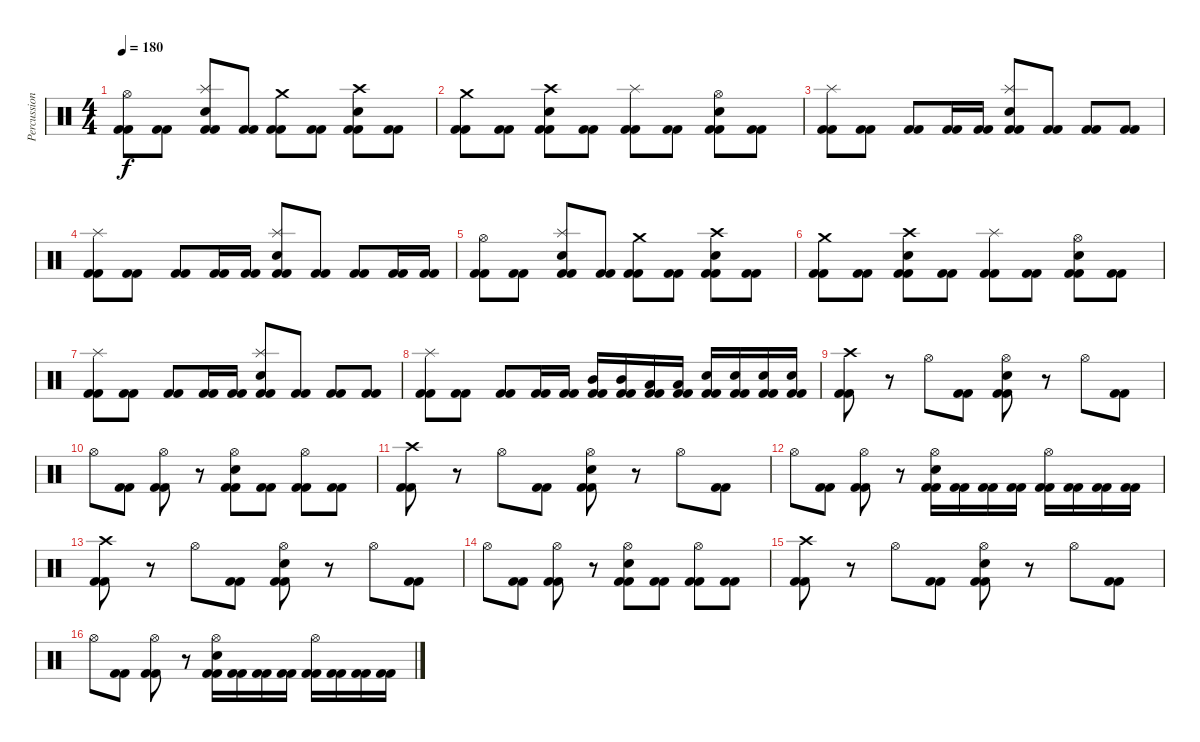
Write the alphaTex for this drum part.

\track ("Percussion" "Percussion") {instrument percussion}
\staff {score}
\articulation defaults
\ts (4 4)
\tempo 180
\clef neutral
\ks c
("Hi-Hat (open)" "Kick (hit) 2" "Kick (hit) 2").8{dy f} ("Kick (hit) 2" "Kick (hit) 2").8 ("Splash (hit)" "Electric Snare (hit)" "Kick (hit) 2" "Kick (hit) 2").8 ("Kick (hit) 2" "Kick (hit) 2").8 ("Crash medium (hit)" "Kick (hit) 2" "Kick (hit) 2").8 ("Kick (hit) 2" "Kick (hit) 2").8 ("Crash high (hit)" "Electric Snare (hit)" "Kick (hit) 2" "Kick (hit) 2").8 ("Kick (hit) 2" "Kick (hit) 2").8 |
("Crash medium (hit)" "Kick (hit) 2" "Kick (hit) 2").8 ("Kick (hit) 2" "Kick (hit) 2").8 ("Crash high (hit)" "Electric Snare (hit)" "Kick (hit) 2" "Kick (hit) 2").8 ("Kick (hit) 2" "Kick (hit) 2").8 ("Splash (hit)" "Kick (hit) 2" "Kick (hit) 2").8 ("Kick (hit) 2" "Kick (hit) 2").8 ("Hi-Hat (open)" "Electric Snare (hit)" "Kick (hit) 2" "Kick (hit) 2").8 ("Kick (hit) 2" "Kick (hit) 2").8 |
("Splash (hit)" "Kick (hit) 2" "Kick (hit) 2").8 ("Kick (hit) 2" "Kick (hit) 2").8 ("Kick (hit) 2" "Kick (hit) 2").8 ("Kick (hit) 2" "Kick (hit) 2").16 ("Kick (hit) 2" "Kick (hit) 2").16 ("Splash (hit)" "Electric Snare (hit)" "Kick (hit) 2" "Kick (hit) 2").8 ("Kick (hit) 2" "Kick (hit) 2").8 ("Kick (hit) 2" "Kick (hit) 2").8 ("Kick (hit) 2" "Kick (hit) 2").8 |
("Splash (hit)" "Kick (hit) 2" "Kick (hit) 2").8 ("Kick (hit) 2" "Kick (hit) 2").8 ("Kick (hit) 2" "Kick (hit) 2").8 ("Kick (hit) 2" "Kick (hit) 2").16 ("Kick (hit) 2" "Kick (hit) 2").16 ("Splash (hit)" "Electric Snare (hit)" "Kick (hit) 2" "Kick (hit) 2").8 ("Kick (hit) 2" "Kick (hit) 2").8 ("Kick (hit) 2" "Kick (hit) 2").8 ("Kick (hit) 2" "Kick (hit) 2").16 ("Kick (hit) 2" "Kick (hit) 2").16 |
("Hi-Hat (open)" "Kick (hit) 2" "Kick (hit) 2").8 ("Kick (hit) 2" "Kick (hit) 2").8 ("Splash (hit)" "Electric Snare (hit)" "Kick (hit) 2" "Kick (hit) 2").8 ("Kick (hit) 2" "Kick (hit) 2").8 ("Crash medium (hit)" "Kick (hit) 2" "Kick (hit) 2").8 ("Kick (hit) 2" "Kick (hit) 2").8 ("Crash high (hit)" "Electric Snare (hit)" "Kick (hit) 2" "Kick (hit) 2").8 ("Kick (hit) 2" "Kick (hit) 2").8 |
("Crash medium (hit)" "Kick (hit) 2" "Kick (hit) 2").8 ("Kick (hit) 2" "Kick (hit) 2").8 ("Crash high (hit)" "Electric Snare (hit)" "Kick (hit) 2" "Kick (hit) 2").8 ("Kick (hit) 2" "Kick (hit) 2").8 ("Splash (hit)" "Kick (hit) 2" "Kick (hit) 2").8 ("Kick (hit) 2" "Kick (hit) 2").8 ("Hi-Hat (open)" "Electric Snare (hit)" "Kick (hit) 2" "Kick (hit) 2").8 ("Kick (hit) 2" "Kick (hit) 2").8 |
("Splash (hit)" "Kick (hit) 2" "Kick (hit) 2").8 ("Kick (hit) 2" "Kick (hit) 2").8 ("Kick (hit) 2" "Kick (hit) 2").8 ("Kick (hit) 2" "Kick (hit) 2").16 ("Kick (hit) 2" "Kick (hit) 2").16 ("Splash (hit)" "Electric Snare (hit)" "Kick (hit) 2" "Kick (hit) 2").8 ("Kick (hit) 2" "Kick (hit) 2").8 ("Kick (hit) 2" "Kick (hit) 2").8 ("Kick (hit) 2" "Kick (hit) 2").8 |
("Splash (hit)" "Kick (hit) 2" "Kick (hit) 2").8 ("Kick (hit) 2" "Kick (hit) 2").8 ("Kick (hit) 2" "Kick (hit) 2").8 ("Kick (hit) 2" "Kick (hit) 2").16 ("Kick (hit) 2" "Kick (hit) 2").16 ("Mid Tom (hit)" "Kick (hit) 2" "Kick (hit) 2").16 ("Mid Tom (hit)" "Kick (hit) 2" "Kick (hit) 2").16 ("Low Tom (hit)" "Kick (hit) 2" "Kick (hit) 2").16 ("Low Tom (hit)" "Kick (hit) 2" "Kick (hit) 2").16 ("Electric Snare (hit)" "Kick (hit) 2" "Kick (hit) 2").16 ("Electric Snare (hit)" "Kick (hit) 2" "Kick (hit) 2").16 ("Electric Snare (hit)" "Kick (hit) 2" "Kick (hit) 2").16 ("Electric Snare (hit)" "Kick (hit) 2" "Kick (hit) 2").16 |
("Crash high (hit)" "Kick (hit) 2" "Kick (hit) 2").8 r.8 "Hi-Hat (open)".8 ("Kick (hit) 2" "Kick (hit) 2").8 ("Hi-Hat (open)" "Electric Snare (hit)" "Kick (hit) 2" "Kick (hit) 2").8 r.8 "Hi-Hat (open)".8 ("Kick (hit) 2" "Kick (hit) 2").8 |
"Hi-Hat (open)".8 ("Kick (hit) 2" "Kick (hit) 2").8 ("Hi-Hat (open)" "Kick (hit) 2" "Kick (hit) 2").8 r.8 ("Hi-Hat (open)" "Electric Snare (hit)" "Kick (hit) 2" "Kick (hit) 2").8 ("Kick (hit) 2" "Kick (hit) 2").8 ("Hi-Hat (open)" "Kick (hit) 2" "Kick (hit) 2").8 ("Kick (hit) 2" "Kick (hit) 2").8 |
("Crash high (hit)" "Kick (hit) 2" "Kick (hit) 2").8 r.8 "Hi-Hat (open)".8 ("Kick (hit) 2" "Kick (hit) 2").8 ("Hi-Hat (open)" "Electric Snare (hit)" "Kick (hit) 2" "Kick (hit) 2").8 r.8 "Hi-Hat (open)".8 ("Kick (hit) 2" "Kick (hit) 2").8 |
"Hi-Hat (open)".8 ("Kick (hit) 2" "Kick (hit) 2").8 ("Hi-Hat (open)" "Kick (hit) 2" "Kick (hit) 2").8 r.8 ("Hi-Hat (open)" "Electric Snare (hit)" "Kick (hit) 2" "Kick (hit) 2").16 ("Kick (hit) 2" "Kick (hit) 2").16 ("Kick (hit) 2" "Kick (hit) 2").16 ("Kick (hit) 2" "Kick (hit) 2").16 ("Hi-Hat (open)" "Kick (hit) 2" "Kick (hit) 2").16 ("Kick (hit) 2" "Kick (hit) 2").16 ("Kick (hit) 2" "Kick (hit) 2").16 ("Kick (hit) 2" "Kick (hit) 2").16 |
("Crash high (hit)" "Kick (hit) 2" "Kick (hit) 2").8 r.8 "Hi-Hat (open)".8 ("Kick (hit) 2" "Kick (hit) 2").8 ("Hi-Hat (open)" "Electric Snare (hit)" "Kick (hit) 2" "Kick (hit) 2").8 r.8 "Hi-Hat (open)".8 ("Kick (hit) 2" "Kick (hit) 2").8 |
"Hi-Hat (open)".8 ("Kick (hit) 2" "Kick (hit) 2").8 ("Hi-Hat (open)" "Kick (hit) 2" "Kick (hit) 2").8 r.8 ("Hi-Hat (open)" "Electric Snare (hit)" "Kick (hit) 2" "Kick (hit) 2").8 ("Kick (hit) 2" "Kick (hit) 2").8 ("Hi-Hat (open)" "Kick (hit) 2" "Kick (hit) 2").8 ("Kick (hit) 2" "Kick (hit) 2").8 |
("Crash high (hit)" "Kick (hit) 2" "Kick (hit) 2").8 r.8 "Hi-Hat (open)".8 ("Kick (hit) 2" "Kick (hit) 2").8 ("Hi-Hat (open)" "Electric Snare (hit)" "Kick (hit) 2" "Kick (hit) 2").8 r.8 "Hi-Hat (open)".8 ("Kick (hit) 2" "Kick (hit) 2").8 |
"Hi-Hat (open)".8 ("Kick (hit) 2" "Kick (hit) 2").8 ("Hi-Hat (open)" "Kick (hit) 2" "Kick (hit) 2").8 r.8 ("Hi-Hat (open)" "Electric Snare (hit)" "Kick (hit) 2" "Kick (hit) 2").16 ("Kick (hit) 2" "Kick (hit) 2").16 ("Kick (hit) 2" "Kick (hit) 2").16 ("Kick (hit) 2" "Kick (hit) 2").16 ("Hi-Hat (open)" "Kick (hit) 2" "Kick (hit) 2").16 ("Kick (hit) 2" "Kick (hit) 2").16 ("Kick (hit) 2" "Kick (hit) 2").16 ("Kick (hit) 2" "Kick (hit) 2").16
